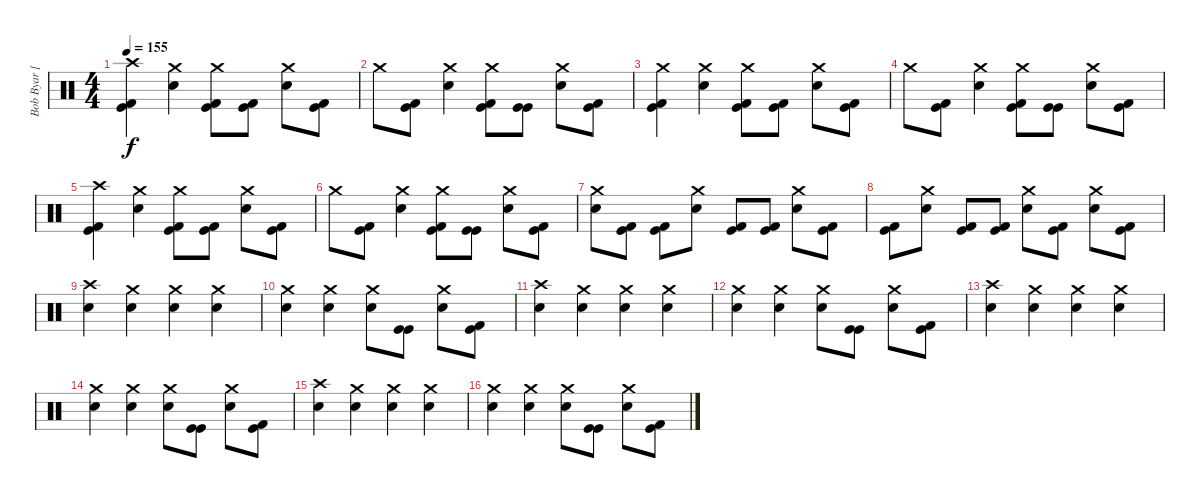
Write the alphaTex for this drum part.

\track ("Bob Byar [Drums]" "Bob Byar [") {instrument percussion}
\staff {score}
\articulation defaults
\ts (4 4)
\tempo 155
\clef neutral
\ks c
("Crash high (hit)" "Kick (hit)" "Kick (hit) 2").4{dy f} ("Crash medium (hit)" "Electric Snare (hit)").4 ("Crash medium (hit)" "Kick (hit)" "Kick (hit) 2").8 ("Kick (hit)" "Kick (hit) 2").8 ("Crash medium (hit)" "Electric Snare (hit)").8 ("Kick (hit)" "Kick (hit) 2").8 |
"Crash medium (hit)".8 ("Kick (hit)" "Kick (hit) 2").8 ("Crash medium (hit)" "Electric Snare (hit)").4 ("Crash medium (hit)" "Kick (hit)" "Kick (hit) 2").8 ("Kick (hit)" "Kick (hit)").8 ("Crash medium (hit)" "Electric Snare (hit)").8 ("Kick (hit)" "Kick (hit) 2").8 |
("Crash medium (hit)" "Kick (hit)" "Kick (hit) 2").4 ("Crash medium (hit)" "Electric Snare (hit)").4 ("Crash medium (hit)" "Kick (hit)" "Kick (hit) 2").8 ("Kick (hit)" "Kick (hit) 2").8 ("Crash medium (hit)" "Electric Snare (hit)").8 ("Kick (hit)" "Kick (hit) 2").8 |
"Crash medium (hit)".8 ("Kick (hit)" "Kick (hit) 2").8 ("Crash medium (hit)" "Electric Snare (hit)").4 ("Crash medium (hit)" "Kick (hit)" "Kick (hit) 2").8 ("Kick (hit)" "Kick (hit)").8 ("Crash medium (hit)" "Electric Snare (hit)").8 ("Kick (hit)" "Kick (hit) 2").8 |
("Crash high (hit)" "Kick (hit)" "Kick (hit) 2").4 ("Crash medium (hit)" "Electric Snare (hit)").4 ("Crash medium (hit)" "Kick (hit)" "Kick (hit) 2").8 ("Kick (hit)" "Kick (hit) 2").8 ("Crash medium (hit)" "Electric Snare (hit)").8 ("Kick (hit)" "Kick (hit) 2").8 |
"Crash medium (hit)".8 ("Kick (hit)" "Kick (hit) 2").8 ("Crash medium (hit)" "Electric Snare (hit)").4 ("Crash medium (hit)" "Kick (hit)" "Kick (hit) 2").8 ("Kick (hit)" "Kick (hit)").8 ("Crash medium (hit)" "Electric Snare (hit)").8 ("Kick (hit)" "Kick (hit) 2").8 |
("Crash medium (hit)" "Electric Snare (hit)").8 ("Kick (hit)" "Kick (hit) 2").8 ("Kick (hit)" "Kick (hit) 2").8 ("Crash medium (hit)" "Electric Snare (hit)").8 ("Kick (hit)" "Kick (hit) 2").8 ("Kick (hit)" "Kick (hit) 2").8 ("Crash medium (hit)" "Electric Snare (hit)").8 ("Kick (hit)" "Kick (hit) 2").8 |
("Kick (hit)" "Kick (hit) 2").8 ("Crash medium (hit)" "Electric Snare (hit)").8 ("Kick (hit)" "Kick (hit) 2").8 ("Kick (hit)" "Kick (hit) 2").8 ("Crash medium (hit)" "Electric Snare (hit)").8 ("Kick (hit)" "Kick (hit) 2").8 ("Crash medium (hit)" "Electric Snare (hit)").8 ("Kick (hit)" "Kick (hit) 2").8 |
("Crash high (hit)" "Electric Snare (hit)").4 ("Crash medium (hit)" "Electric Snare (hit)").4 ("Crash medium (hit)" "Electric Snare (hit)").4 ("Crash medium (hit)" "Electric Snare (hit)").4 |
("Crash medium (hit)" "Electric Snare (hit)").4 ("Crash medium (hit)" "Electric Snare (hit)").4 ("Crash medium (hit)" "Electric Snare (hit)").8 ("Kick (hit)" "Kick (hit)").8 ("Crash medium (hit)" "Electric Snare (hit)").8 ("Kick (hit)" "Kick (hit) 2").8 |
("Crash high (hit)" "Electric Snare (hit)").4 ("Crash medium (hit)" "Electric Snare (hit)").4 ("Crash medium (hit)" "Electric Snare (hit)").4 ("Crash medium (hit)" "Electric Snare (hit)").4 |
("Crash medium (hit)" "Electric Snare (hit)").4 ("Crash medium (hit)" "Electric Snare (hit)").4 ("Crash medium (hit)" "Electric Snare (hit)").8 ("Kick (hit)" "Kick (hit)").8 ("Crash medium (hit)" "Electric Snare (hit)").8 ("Kick (hit)" "Kick (hit) 2").8 |
("Crash high (hit)" "Electric Snare (hit)").4 ("Crash medium (hit)" "Electric Snare (hit)").4 ("Crash medium (hit)" "Electric Snare (hit)").4 ("Crash medium (hit)" "Electric Snare (hit)").4 |
("Crash medium (hit)" "Electric Snare (hit)").4 ("Crash medium (hit)" "Electric Snare (hit)").4 ("Crash medium (hit)" "Electric Snare (hit)").8 ("Kick (hit)" "Kick (hit)").8 ("Crash medium (hit)" "Electric Snare (hit)").8 ("Kick (hit)" "Kick (hit) 2").8 |
("Crash high (hit)" "Electric Snare (hit)").4 ("Crash medium (hit)" "Electric Snare (hit)").4 ("Crash medium (hit)" "Electric Snare (hit)").4 ("Crash medium (hit)" "Electric Snare (hit)").4 |
("Crash medium (hit)" "Electric Snare (hit)").4 ("Crash medium (hit)" "Electric Snare (hit)").4 ("Crash medium (hit)" "Electric Snare (hit)").8 ("Kick (hit)" "Kick (hit)").8 ("Crash medium (hit)" "Electric Snare (hit)").8 ("Kick (hit)" "Kick (hit) 2").8
